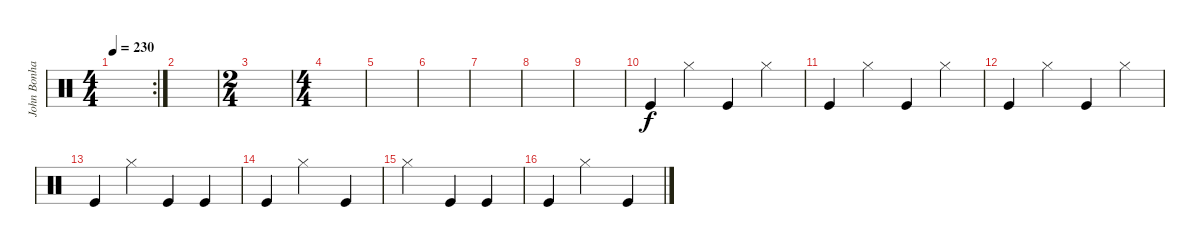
\track ("John Bonham" "John Bonha") {instrument percussion}
\staff {score}
\articulation defaults
\rc 2
\ts (4 4)
\tempo 230
\clef neutral
\ks c
|
|
\ts (2 4)
|
\ts (4 4)
|
|
|
|
|
|
"Kick (hit)".4 "Hi-Hat (closed)".4 "Kick (hit)".4 "Hi-Hat (closed)".4 |
"Kick (hit)".4 "Hi-Hat (closed)".4 "Kick (hit)".4 "Hi-Hat (closed)".4 |
"Kick (hit)".4 "Hi-Hat (closed)".4 "Kick (hit)".4 "Hi-Hat (closed)".4 |
"Kick (hit)".4 "Hi-Hat (closed)".4 "Kick (hit)".4 "Kick (hit)".4 |
"Kick (hit)".4 "Hi-Hat (closed)".2 "Kick (hit)".4 |
"Hi-Hat (closed)".2 "Kick (hit)".4 "Kick (hit)".4 |
"Kick (hit)".4 "Hi-Hat (closed)".2 "Kick (hit)".4
